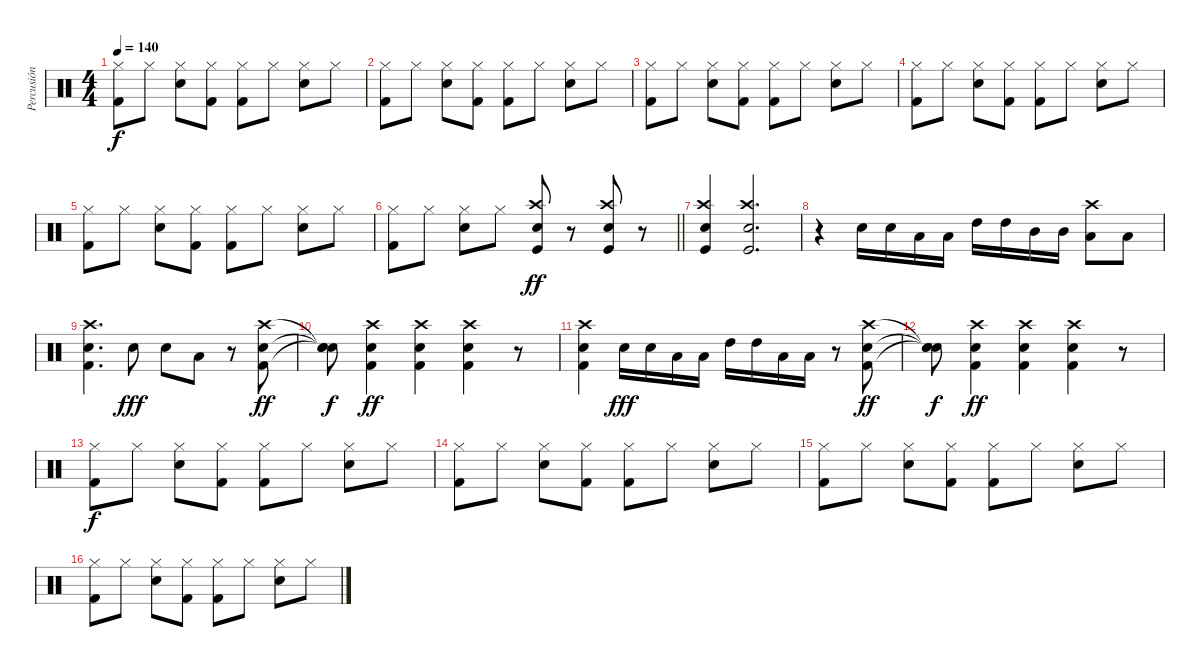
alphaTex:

\track ("Percusión" "Percusión") {instrument percussion}
\staff {score}
\articulation defaults
\ts (4 4)
\tempo 140
\clef neutral
\ks c
("Hi-Hat (closed)" "Kick (hit) 2").8{dy f} "Hi-Hat (closed)".8 ("Hi-Hat (closed)" "Snare (hit) 2").8 ("Hi-Hat (closed)" "Kick (hit) 2").8 ("Hi-Hat (closed)" "Kick (hit) 2").8 "Hi-Hat (closed)".8 ("Hi-Hat (closed)" "Snare (hit) 2").8 "Hi-Hat (closed)".8 |
("Hi-Hat (closed)" "Kick (hit) 2").8 "Hi-Hat (closed)".8 ("Hi-Hat (closed)" "Snare (hit) 2").8 ("Hi-Hat (closed)" "Kick (hit) 2").8 ("Hi-Hat (closed)" "Kick (hit) 2").8 "Hi-Hat (closed)".8 ("Hi-Hat (closed)" "Snare (hit) 2").8 "Hi-Hat (closed)".8 |
("Hi-Hat (closed)" "Kick (hit) 2").8 "Hi-Hat (closed)".8 ("Hi-Hat (closed)" "Snare (hit) 2").8 ("Hi-Hat (closed)" "Kick (hit) 2").8 ("Hi-Hat (closed)" "Kick (hit) 2").8 "Hi-Hat (closed)".8 ("Hi-Hat (closed)" "Snare (hit) 2").8 "Hi-Hat (closed)".8 |
("Hi-Hat (closed)" "Kick (hit) 2").8 "Hi-Hat (closed)".8 ("Hi-Hat (closed)" "Snare (hit) 2").8 ("Hi-Hat (closed)" "Kick (hit) 2").8 ("Hi-Hat (closed)" "Kick (hit) 2").8 "Hi-Hat (closed)".8 ("Hi-Hat (closed)" "Snare (hit) 2").8 "Hi-Hat (closed)".8 |
("Hi-Hat (closed)" "Kick (hit) 2").8 "Hi-Hat (closed)".8 ("Hi-Hat (closed)" "Snare (hit) 2").8 ("Hi-Hat (closed)" "Kick (hit) 2").8 ("Hi-Hat (closed)" "Kick (hit) 2").8 "Hi-Hat (closed)".8 ("Hi-Hat (closed)" "Snare (hit) 2").8 "Hi-Hat (closed)".8 |
\barLineRight lightlight
("Hi-Hat (closed)" "Kick (hit) 2").8 "Hi-Hat (closed)".8 ("Hi-Hat (closed)" "Snare (hit) 2").8 "Hi-Hat (closed)".8 ("Crash high (hit)" "Snare (hit) 2" "Kick (hit)").8{dy ff} r.8 ("Crash high (hit)" "Snare (hit) 2" "Kick (hit)").8 r.8 |
("Crash high (hit)" "Kick (hit)" "Snare (hit) 2").4 ("Crash high (hit)" "Snare (hit) 2" "Kick (hit)").2{d} |
r.4 "Snare (hit) 2".16 "Snare (hit) 2".16 "Low Tom (hit)".16 "Low Tom (hit)".16 "High Tom (hit)".16 "High Tom (hit)".16 "Mid Tom (hit)".16 "Mid Tom (hit)".16 ("Crash high (hit)" "Low Floor Tom (hit)").8 "Low Floor Tom (hit)".8 |
("Crash high (hit)" "Snare (hit) 2" "Kick (hit) 2").4{d} "Snare (hit) 2".8{dy fff} "Snare (hit) 2".8 "Low Tom (hit)".8 r.8 ("Crash high (hit)" "Snare (hit) 2" "Kick (hit) 2").8{dy ff} |
("Snare (hit)"{t} "Snare (hit)"{t} "Snare (hit)"{t}).8{dy f} ("Crash high (hit)" "Kick (hit) 2" "Snare (hit) 2").4{dy ff} ("Crash high (hit)" "Kick (hit) 2" "Snare (hit) 2").4 ("Crash high (hit)" "Kick (hit) 2" "Snare (hit) 2").4 r.8 |
("Crash high (hit)" "Snare (hit) 2" "Kick (hit) 2").4 "Snare (hit) 2".16{dy fff} "Snare (hit) 2".16 "Low Tom (hit)".16 "Low Tom (hit)".16 "High Tom (hit)".16 "High Tom (hit)".16 "Low Floor Tom (hit)".16 "Low Floor Tom (hit)".16 r.8 ("Crash high (hit)" "Snare (hit) 2" "Kick (hit) 2").8{dy ff} |
("Snare (hit)"{t} "Snare (hit)"{t} "Snare (hit)"{t}).8{dy f} ("Crash high (hit)" "Kick (hit) 2" "Snare (hit) 2").4{dy ff} ("Crash high (hit)" "Kick (hit) 2" "Snare (hit) 2").4 ("Crash high (hit)" "Kick (hit) 2" "Snare (hit) 2").4 r.8 |
("Hi-Hat (closed)" "Kick (hit) 2").8{dy f} "Hi-Hat (closed)".8 ("Hi-Hat (closed)" "Snare (hit) 2").8 ("Hi-Hat (closed)" "Kick (hit) 2").8 ("Hi-Hat (closed)" "Kick (hit) 2").8 "Hi-Hat (closed)".8 ("Hi-Hat (closed)" "Snare (hit) 2").8 "Hi-Hat (closed)".8 |
("Hi-Hat (closed)" "Kick (hit) 2").8 "Hi-Hat (closed)".8 ("Hi-Hat (closed)" "Snare (hit) 2").8 ("Hi-Hat (closed)" "Kick (hit) 2").8 ("Hi-Hat (closed)" "Kick (hit) 2").8 "Hi-Hat (closed)".8 ("Hi-Hat (closed)" "Snare (hit) 2").8 "Hi-Hat (closed)".8 |
("Hi-Hat (closed)" "Kick (hit) 2").8 "Hi-Hat (closed)".8 ("Hi-Hat (closed)" "Snare (hit) 2").8 ("Hi-Hat (closed)" "Kick (hit) 2").8 ("Hi-Hat (closed)" "Kick (hit) 2").8 "Hi-Hat (closed)".8 ("Hi-Hat (closed)" "Snare (hit) 2").8 "Hi-Hat (closed)".8 |
("Hi-Hat (closed)" "Kick (hit) 2").8 "Hi-Hat (closed)".8 ("Hi-Hat (closed)" "Snare (hit) 2").8 ("Hi-Hat (closed)" "Kick (hit) 2").8 ("Hi-Hat (closed)" "Kick (hit) 2").8 "Hi-Hat (closed)".8 ("Hi-Hat (closed)" "Snare (hit) 2").8 "Hi-Hat (closed)".8
